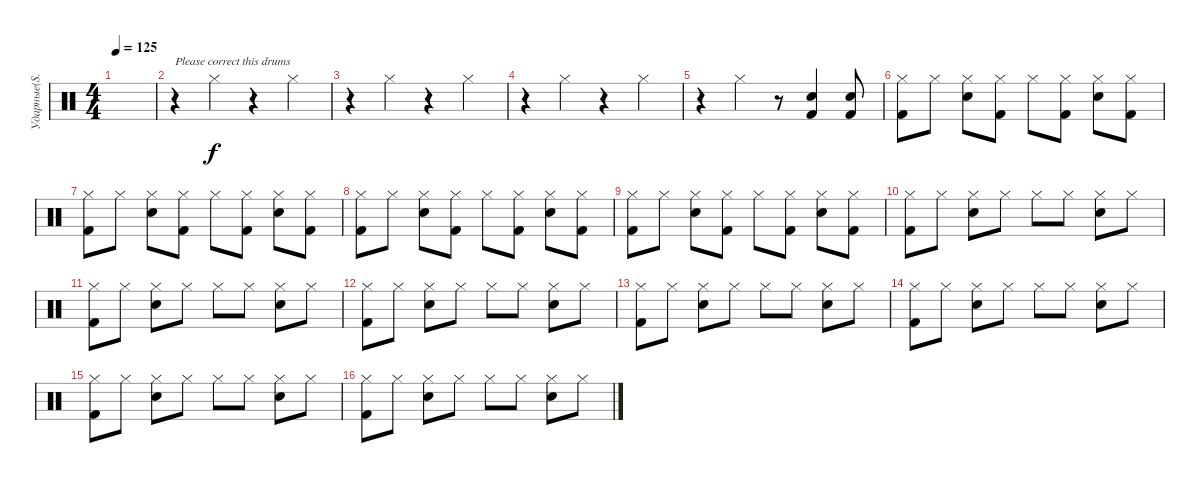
\track ("Ударные(S. Travis)" "Ударные(S.") {instrument percussion}
\staff {score}
\articulation defaults
\ts (4 4)
\tempo 125
\clef neutral
\ks c
|
r.4{txt "Please correct this drums"} "Hi-Hat (closed)".4 r.4 "Hi-Hat (closed)".4 |
r.4 "Hi-Hat (closed)".4 r.4 "Hi-Hat (closed)".4 |
r.4 "Hi-Hat (closed)".4 r.4 "Hi-Hat (closed)".4 |
r.4 "Hi-Hat (closed)".4 r.8 ("Snare (hit) 2" "Kick (hit) 2").4 ("Snare (hit) 2" "Kick (hit) 2").8 |
("Hi-Hat (closed)" "Kick (hit) 2").8 "Hi-Hat (closed)".8 ("Hi-Hat (closed)" "Snare (hit) 2").8 ("Hi-Hat (closed)" "Kick (hit) 2").8 "Hi-Hat (closed)".8 ("Hi-Hat (closed)" "Kick (hit) 2").8 ("Hi-Hat (closed)" "Snare (hit) 2").8 ("Hi-Hat (closed)" "Kick (hit) 2").8 |
("Hi-Hat (closed)" "Kick (hit) 2").8 "Hi-Hat (closed)".8 ("Hi-Hat (closed)" "Snare (hit) 2").8 ("Hi-Hat (closed)" "Kick (hit) 2").8 "Hi-Hat (closed)".8 ("Hi-Hat (closed)" "Kick (hit) 2").8 ("Hi-Hat (closed)" "Snare (hit) 2").8 ("Hi-Hat (closed)" "Kick (hit) 2").8 |
("Hi-Hat (closed)" "Kick (hit) 2").8 "Hi-Hat (closed)".8 ("Hi-Hat (closed)" "Snare (hit) 2").8 ("Hi-Hat (closed)" "Kick (hit) 2").8 "Hi-Hat (closed)".8 ("Hi-Hat (closed)" "Kick (hit) 2").8 ("Hi-Hat (closed)" "Snare (hit) 2").8 ("Hi-Hat (closed)" "Kick (hit) 2").8 |
("Hi-Hat (closed)" "Kick (hit) 2").8 "Hi-Hat (closed)".8 ("Hi-Hat (closed)" "Snare (hit) 2").8 ("Hi-Hat (closed)" "Kick (hit) 2").8 "Hi-Hat (closed)".8 ("Hi-Hat (closed)" "Kick (hit) 2").8 ("Hi-Hat (closed)" "Snare (hit) 2").8 ("Hi-Hat (closed)" "Kick (hit) 2").8 |
("Hi-Hat (closed)" "Kick (hit) 2").8 "Hi-Hat (closed)".8 ("Hi-Hat (closed)" "Snare (hit) 2").8 "Hi-Hat (closed)".8 "Hi-Hat (closed)".8 "Hi-Hat (closed)".8 ("Hi-Hat (closed)" "Snare (hit) 2").8 "Hi-Hat (closed)".8 |
("Hi-Hat (closed)" "Kick (hit) 2").8 "Hi-Hat (closed)".8 ("Hi-Hat (closed)" "Snare (hit) 2").8 "Hi-Hat (closed)".8 "Hi-Hat (closed)".8 "Hi-Hat (closed)".8 ("Hi-Hat (closed)" "Snare (hit) 2").8 "Hi-Hat (closed)".8 |
("Hi-Hat (closed)" "Kick (hit) 2").8 "Hi-Hat (closed)".8 ("Hi-Hat (closed)" "Snare (hit) 2").8 "Hi-Hat (closed)".8 "Hi-Hat (closed)".8 "Hi-Hat (closed)".8 ("Hi-Hat (closed)" "Snare (hit) 2").8 "Hi-Hat (closed)".8 |
("Hi-Hat (closed)" "Kick (hit) 2").8 "Hi-Hat (closed)".8 ("Hi-Hat (closed)" "Snare (hit) 2").8 "Hi-Hat (closed)".8 "Hi-Hat (closed)".8 "Hi-Hat (closed)".8 ("Hi-Hat (closed)" "Snare (hit) 2").8 "Hi-Hat (closed)".8 |
("Hi-Hat (closed)" "Kick (hit) 2").8 "Hi-Hat (closed)".8 ("Hi-Hat (closed)" "Snare (hit) 2").8 "Hi-Hat (closed)".8 "Hi-Hat (closed)".8 "Hi-Hat (closed)".8 ("Hi-Hat (closed)" "Snare (hit) 2").8 "Hi-Hat (closed)".8 |
("Hi-Hat (closed)" "Kick (hit) 2").8 "Hi-Hat (closed)".8 ("Hi-Hat (closed)" "Snare (hit) 2").8 "Hi-Hat (closed)".8 "Hi-Hat (closed)".8 "Hi-Hat (closed)".8 ("Hi-Hat (closed)" "Snare (hit) 2").8 "Hi-Hat (closed)".8 |
("Hi-Hat (closed)" "Kick (hit) 2").8 "Hi-Hat (closed)".8 ("Hi-Hat (closed)" "Snare (hit) 2").8 "Hi-Hat (closed)".8 "Hi-Hat (closed)".8 "Hi-Hat (closed)".8 ("Hi-Hat (closed)" "Snare (hit) 2").8 "Hi-Hat (closed)".8
